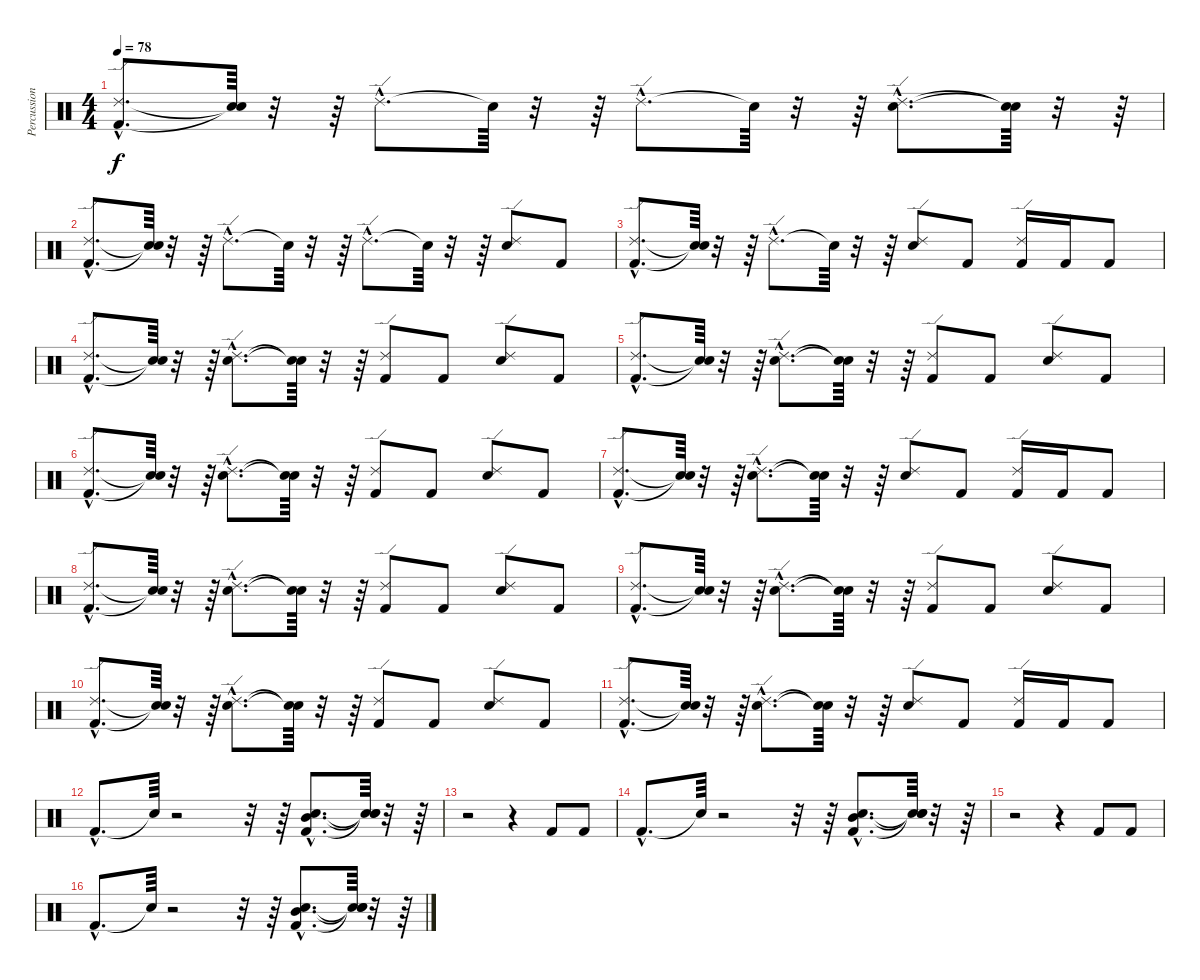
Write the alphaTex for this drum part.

\track ("Percussion" "Percussion") {instrument percussion}
\staff {score}
\articulation defaults
\ts (4 4)
\tempo 78
\clef neutral
\ks c
("Kick (hit) 2"{hac} "Ride (edge) 2"{hac}).8{d dy f} ("Snare (hit)"{t} "Snare (hit)"{t}).64 r.32 r.64 "Ride (edge) 2"{hac}.8{d} "Snare (hit)"{t}.64 r.32 r.64 "Ride (edge) 2"{hac}.8{d} "Snare (hit)"{t}.64 r.32 r.64 ("Snare (hit) 2"{hac} "Ride (edge) 2"{hac}).8{d} ("Snare (hit)"{t} "Snare (hit)"{t}).64 r.32 r.64 |
("Kick (hit) 2"{hac} "Ride (edge) 2"{hac}).8{d} ("Snare (hit)"{t} "Snare (hit)"{t}).64 r.32 r.64 "Ride (edge) 2"{hac}.8{d} "Snare (hit)"{t}.64 r.32 r.64 "Ride (edge) 2"{hac}.8{d} "Snare (hit)"{t}.64 r.32 r.64 ("Snare (hit) 2" "Ride (edge) 2").8 "Kick (hit) 2".8 |
("Kick (hit) 2"{hac} "Ride (edge) 2"{hac}).8{d} ("Snare (hit)"{t} "Snare (hit)"{t}).64 r.32 r.64 "Ride (edge) 2"{hac}.8{d} "Snare (hit)"{t}.64 r.32 r.64 ("Snare (hit) 2" "Ride (edge) 2").8 "Kick (hit) 2".8 ("Kick (hit) 2" "Ride (edge) 2").16 "Kick (hit) 2".16 "Kick (hit) 2".8 |
("Kick (hit) 2"{hac} "Ride (edge) 2"{hac}).8{d} ("Snare (hit)"{t} "Snare (hit)"{t}).64 r.32 r.64 ("Snare (hit) 2"{hac} "Ride (edge) 2"{hac}).8{d} ("Snare (hit)"{t} "Snare (hit)"{t}).64 r.32 r.64 ("Kick (hit) 2" "Ride (edge) 2").8 "Kick (hit) 2".8 ("Snare (hit) 2" "Ride (edge) 2").8 "Kick (hit) 2".8 |
("Kick (hit) 2"{hac} "Ride (edge) 2"{hac}).8{d} ("Snare (hit)"{t} "Snare (hit)"{t}).64 r.32 r.64 ("Snare (hit) 2"{hac} "Ride (edge) 2"{hac}).8{d} ("Snare (hit)"{t} "Snare (hit)"{t}).64 r.32 r.64 ("Kick (hit) 2" "Ride (edge) 2").8 "Kick (hit) 2".8 ("Snare (hit) 2" "Ride (edge) 2").8 "Kick (hit) 2".8 |
("Kick (hit) 2"{hac} "Ride (edge) 2"{hac}).8{d} ("Snare (hit)"{t} "Snare (hit)"{t}).64 r.32 r.64 ("Snare (hit) 2"{hac} "Ride (edge) 2"{hac}).8{d} ("Snare (hit)"{t} "Snare (hit)"{t}).64 r.32 r.64 ("Kick (hit) 2" "Ride (edge) 2").8 "Kick (hit) 2".8 ("Snare (hit) 2" "Ride (edge) 2").8 "Kick (hit) 2".8 |
("Kick (hit) 2"{hac} "Ride (edge) 2"{hac}).8{d} ("Snare (hit)"{t} "Snare (hit)"{t}).64 r.32 r.64 ("Snare (hit) 2"{hac} "Ride (edge) 2"{hac}).8{d} ("Snare (hit)"{t} "Snare (hit)"{t}).64 r.32 r.64 ("Snare (hit) 2" "Ride (edge) 2").8 "Kick (hit) 2".8 ("Kick (hit) 2" "Ride (edge) 2").16 "Kick (hit) 2".16 "Kick (hit) 2".8 |
("Kick (hit) 2"{hac} "Ride (edge) 2"{hac}).8{d} ("Snare (hit)"{t} "Snare (hit)"{t}).64 r.32 r.64 ("Snare (hit) 2"{hac} "Ride (edge) 2"{hac}).8{d} ("Snare (hit)"{t} "Snare (hit)"{t}).64 r.32 r.64 ("Kick (hit) 2" "Ride (edge) 2").8 "Kick (hit) 2".8 ("Snare (hit) 2" "Ride (edge) 2").8 "Kick (hit) 2".8 |
("Kick (hit) 2"{hac} "Ride (edge) 2"{hac}).8{d} ("Snare (hit)"{t} "Snare (hit)"{t}).64 r.32 r.64 ("Snare (hit) 2"{hac} "Ride (edge) 2"{hac}).8{d} ("Snare (hit)"{t} "Snare (hit)"{t}).64 r.32 r.64 ("Kick (hit) 2" "Ride (edge) 2").8 "Kick (hit) 2".8 ("Snare (hit) 2" "Ride (edge) 2").8 "Kick (hit) 2".8 |
("Kick (hit) 2"{hac} "Ride (edge) 2"{hac}).8{d} ("Snare (hit)"{t} "Snare (hit)"{t}).64 r.32 r.64 ("Snare (hit) 2"{hac} "Ride (edge) 2"{hac}).8{d} ("Snare (hit)"{t} "Snare (hit)"{t}).64 r.32 r.64 ("Kick (hit) 2" "Ride (edge) 2").8 "Kick (hit) 2".8 ("Snare (hit) 2" "Ride (edge) 2").8 "Kick (hit) 2".8 |
("Kick (hit) 2"{hac} "Ride (edge) 2"{hac}).8{d} ("Snare (hit)"{t} "Snare (hit)"{t}).64 r.32 r.64 ("Snare (hit) 2"{hac} "Ride (edge) 2"{hac}).8{d} ("Snare (hit)"{t} "Snare (hit)"{t}).64 r.32 r.64 ("Snare (hit) 2" "Ride (edge) 2").8 "Kick (hit) 2".8 ("Kick (hit) 2" "Ride (edge) 2").16 "Kick (hit) 2".16 "Kick (hit) 2".8 |
"Kick (hit) 2"{hac}.8{d} "Snare (hit)"{t}.64 r.2 r.32 r.64 ("Kick (hit) 2"{hac} "Electric Snare (hit)"{hac} "Mid Tom (hit)"{hac}).8{d} ("Snare (hit)"{t} "Snare (hit)"{t} "Snare (hit)"{t}).64 r.32 r.64 |
r.2 r.4 "Kick (hit) 2".8 "Kick (hit) 2".8 |
"Kick (hit) 2"{hac}.8{d} "Snare (hit)"{t}.64 r.2 r.32 r.64 ("Kick (hit) 2"{hac} "Electric Snare (hit)"{hac} "Mid Tom (hit)"{hac}).8{d} ("Snare (hit)"{t} "Snare (hit)"{t} "Snare (hit)"{t}).64 r.32 r.64 |
r.2 r.4 "Kick (hit) 2".8 "Kick (hit) 2".8 |
"Kick (hit) 2"{hac}.8{d} "Snare (hit)"{t}.64 r.2 r.32 r.64 ("Kick (hit) 2"{hac} "Electric Snare (hit)"{hac} "Mid Tom (hit)"{hac}).8{d} ("Snare (hit)"{t} "Snare (hit)"{t} "Snare (hit)"{t}).64 r.32 r.64
